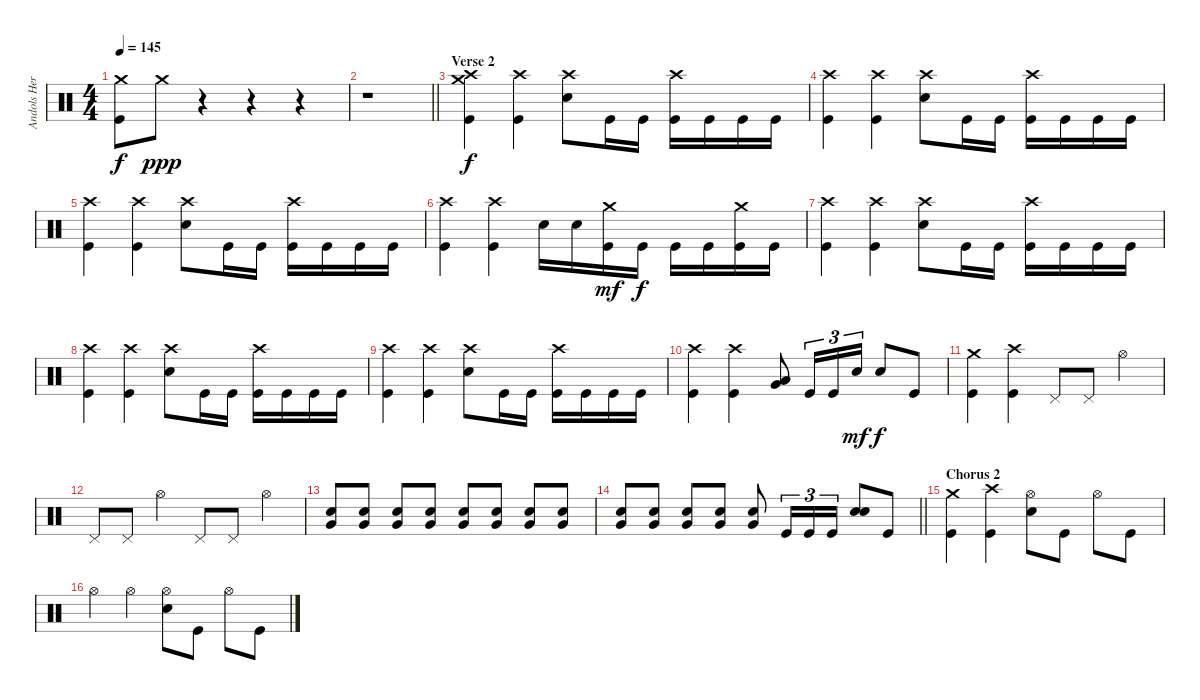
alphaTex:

\track ("Andols Herrick" "Andols Her") {instrument percussion}
\staff
\articulation defaults
\ts (4 4)
\tempo 145
\clef neutral
\ks c
("Crash medium (hit)" "Kick (hit)").8{dy f} "Crash medium (hit)".8{dy ppp} r.4 r.4 r.4 |
\barLineRight lightlight
r.1 |
\section ("" "Verse 2")
("Crash medium (hit)" "Crash high (hit)" "Kick (hit)").4{dy f} ("Crash high (hit)" "Kick (hit)").4 ("Crash high (hit)" "Electric Snare (hit)").8 "Kick (hit)".16 "Kick (hit)".16 ("Crash high (hit)" "Kick (hit)").16 "Kick (hit)".16 "Kick (hit)".16 "Kick (hit)".16 |
("Crash high (hit)" "Kick (hit)").4 ("Crash high (hit)" "Kick (hit)").4 ("Crash high (hit)" "Electric Snare (hit)").8 "Kick (hit)".16 "Kick (hit)".16 ("Crash high (hit)" "Kick (hit)").16 "Kick (hit)".16 "Kick (hit)".16 "Kick (hit)".16 |
("Crash high (hit)" "Kick (hit)").4 ("Crash high (hit)" "Kick (hit)").4 ("Crash high (hit)" "Electric Snare (hit)").8 "Kick (hit)".16 "Kick (hit)".16 ("Crash high (hit)" "Kick (hit)").16 "Kick (hit)".16 "Kick (hit)".16 "Kick (hit)".16 |
("Crash high (hit)" "Kick (hit)").4 ("Crash high (hit)" "Kick (hit)").4 "Electric Snare (hit)".16 "Electric Snare (hit)".16 ("Crash medium (hit)" "Kick (hit)").16{dy mf} "Kick (hit)".16{dy f} "Kick (hit)".16 "Kick (hit)".16 ("Crash medium (hit)" "Kick (hit)").16 "Kick (hit)".16 |
("Crash high (hit)" "Kick (hit)").4 ("Crash high (hit)" "Kick (hit)").4 ("Crash high (hit)" "Electric Snare (hit)").8 "Kick (hit)".16 "Kick (hit)".16 ("Crash high (hit)" "Kick (hit)").16 "Kick (hit)".16 "Kick (hit)".16 "Kick (hit)".16 |
("Crash high (hit)" "Kick (hit)").4 ("Crash high (hit)" "Kick (hit)").4 ("Crash high (hit)" "Electric Snare (hit)").8 "Kick (hit)".16 "Kick (hit)".16 ("Crash high (hit)" "Kick (hit)").16 "Kick (hit)".16 "Kick (hit)".16 "Kick (hit)".16 |
("Crash high (hit)" "Kick (hit)").4 ("Crash high (hit)" "Kick (hit)").4 ("Crash high (hit)" "Electric Snare (hit)").8 "Kick (hit)".16 "Kick (hit)".16 ("Crash high (hit)" "Kick (hit)").16 "Kick (hit)".16 "Kick (hit)".16 "Kick (hit)".16 |
("Crash high (hit)" "Kick (hit)").4 ("Crash high (hit)" "Kick (hit)").4 ("Very Low Tom (hit)" "Low Floor Tom (hit)").8 "Kick (hit)".16{tu (3 2)} "Kick (hit)".16{tu (3 2)} "Electric Snare (hit)".16{tu (3 2) dy mf} "Electric Snare (hit)".8{dy f} "Kick (hit)".8 |
("Crash medium (hit)" "Kick (hit)").4 ("Crash high (hit)" "Kick (hit)").4 "Pedal Hi-Hat (hit)".8 "Pedal Hi-Hat (hit)".8 "Hi-Hat (open)".4 |
"Pedal Hi-Hat (hit)".8 "Pedal Hi-Hat (hit)".8 "Hi-Hat (open)".4 "Pedal Hi-Hat (hit)".8 "Pedal Hi-Hat (hit)".8 "Hi-Hat (open)".4 |
("Electric Snare (hit)" "Very Low Tom (hit)").8 ("Electric Snare (hit)" "Very Low Tom (hit)").8 ("Electric Snare (hit)" "Very Low Tom (hit)").8 ("Electric Snare (hit)" "Very Low Tom (hit)").8 ("Electric Snare (hit)" "Very Low Tom (hit)").8 ("Electric Snare (hit)" "Very Low Tom (hit)").8 ("Electric Snare (hit)" "Very Low Tom (hit)").8 ("Electric Snare (hit)" "Very Low Tom (hit)").8 |
\barLineRight lightlight
("Electric Snare (hit)" "Very Low Tom (hit)").8 ("Electric Snare (hit)" "Very Low Tom (hit)").8 ("Electric Snare (hit)" "Very Low Tom (hit)").8 ("Electric Snare (hit)" "Very Low Tom (hit)").8 ("Electric Snare (hit)" "Very Low Tom (hit)").8 "Kick (hit)".16{tu (3 2)} "Kick (hit)".16{tu (3 2)} "Kick (hit)".16{tu (3 2)} ("Electric Snare (hit)" "Electric Snare (hit)").8 "Kick (hit)".8 |
\section ("" "Chorus 2")
("Crash medium (hit)" "Kick (hit)").4 ("Crash high (hit)" "Kick (hit)").4 ("Hi-Hat (open)" "Electric Snare (hit)").8 "Kick (hit)".8 "Hi-Hat (open)".8 "Kick (hit)".8 |
"Hi-Hat (open)".4 "Hi-Hat (open)".4 ("Hi-Hat (open)" "Electric Snare (hit)").8 "Kick (hit)".8 "Hi-Hat (open)".8 "Kick (hit)".8
